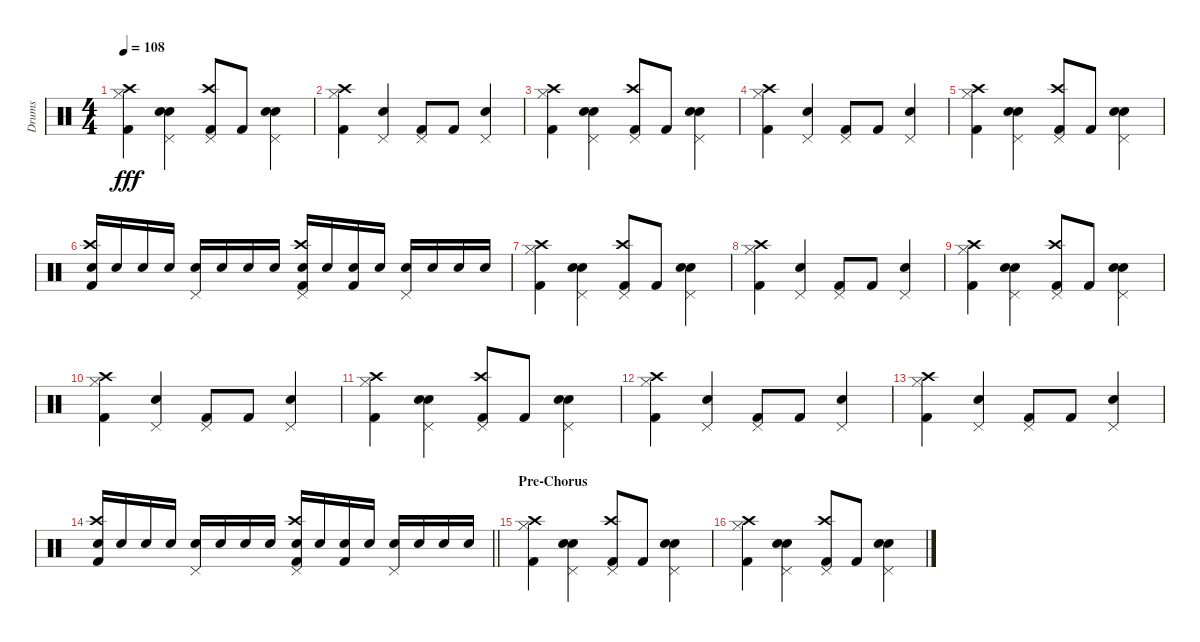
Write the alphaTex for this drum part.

\track ("Drums" "Drums") {instrument percussion}
\staff {score}
\articulation defaults
\ts (4 4)
\tempo 108
\clef neutral
\ks c
("Hi-Hat (closed)" "Kick (hit) 2" "Crash high (hit)").4{dy fff} ("Electric Snare (hit)" "Pedal Hi-Hat (hit)" "Snare (hit) 2").4 ("Pedal Hi-Hat (hit)" "Kick (hit) 2" "Crash high (hit)").8 "Kick (hit) 2".8 ("Electric Snare (hit)" "Pedal Hi-Hat (hit)" "Snare (hit) 2").4 |
("Hi-Hat (closed)" "Kick (hit) 2" "Crash high (hit)").4 ("Electric Snare (hit)" "Pedal Hi-Hat (hit)").4 ("Pedal Hi-Hat (hit)" "Kick (hit) 2").8 "Kick (hit) 2".8 ("Electric Snare (hit)" "Pedal Hi-Hat (hit)").4 |
("Hi-Hat (closed)" "Kick (hit) 2" "Crash high (hit)").4 ("Electric Snare (hit)" "Pedal Hi-Hat (hit)" "Snare (hit) 2").4 ("Pedal Hi-Hat (hit)" "Kick (hit) 2" "Crash high (hit)").8 "Kick (hit) 2".8 ("Electric Snare (hit)" "Pedal Hi-Hat (hit)" "Snare (hit) 2").4 |
("Hi-Hat (closed)" "Kick (hit) 2" "Crash high (hit)").4 ("Electric Snare (hit)" "Pedal Hi-Hat (hit)").4 ("Pedal Hi-Hat (hit)" "Kick (hit) 2").8 "Kick (hit) 2".8 ("Electric Snare (hit)" "Pedal Hi-Hat (hit)").4 |
("Hi-Hat (closed)" "Kick (hit) 2" "Crash high (hit)").4 ("Electric Snare (hit)" "Pedal Hi-Hat (hit)" "Snare (hit) 2").4 ("Pedal Hi-Hat (hit)" "Kick (hit) 2" "Crash high (hit)").8 "Kick (hit) 2".8 ("Electric Snare (hit)" "Pedal Hi-Hat (hit)" "Snare (hit) 2").4 |
("Kick (hit) 2" "Crash high (hit)" "Snare (hit) 2").16 "Snare (hit) 2".16 "Snare (hit) 2".16 "Snare (hit) 2".16 ("Pedal Hi-Hat (hit)" "Electric Snare (hit)").16 "Electric Snare (hit)".16 "Electric Snare (hit)".16 "Electric Snare (hit)".16 ("Pedal Hi-Hat (hit)" "Kick (hit) 2" "Crash high (hit)" "Electric Snare (hit)").16 "Electric Snare (hit)".16 ("Kick (hit) 2" "Electric Snare (hit)").16 "Electric Snare (hit)".16 ("Pedal Hi-Hat (hit)" "Snare (hit) 2").16 "Snare (hit) 2".16 "Snare (hit) 2".16 "Snare (hit) 2".16 |
("Hi-Hat (closed)" "Kick (hit) 2" "Crash high (hit)").4 ("Electric Snare (hit)" "Pedal Hi-Hat (hit)" "Snare (hit) 2").4 ("Pedal Hi-Hat (hit)" "Kick (hit) 2" "Crash high (hit)").8 "Kick (hit) 2".8 ("Electric Snare (hit)" "Pedal Hi-Hat (hit)" "Snare (hit) 2").4 |
("Hi-Hat (closed)" "Kick (hit) 2" "Crash high (hit)").4 ("Electric Snare (hit)" "Pedal Hi-Hat (hit)").4 ("Pedal Hi-Hat (hit)" "Kick (hit) 2").8 "Kick (hit) 2".8 ("Electric Snare (hit)" "Pedal Hi-Hat (hit)").4 |
("Hi-Hat (closed)" "Kick (hit) 2" "Crash high (hit)").4 ("Electric Snare (hit)" "Pedal Hi-Hat (hit)" "Snare (hit) 2").4 ("Pedal Hi-Hat (hit)" "Kick (hit) 2" "Crash high (hit)").8 "Kick (hit) 2".8 ("Electric Snare (hit)" "Pedal Hi-Hat (hit)" "Snare (hit) 2").4 |
("Hi-Hat (closed)" "Kick (hit) 2" "Crash high (hit)").4 ("Electric Snare (hit)" "Pedal Hi-Hat (hit)").4 ("Pedal Hi-Hat (hit)" "Kick (hit) 2").8 "Kick (hit) 2".8 ("Electric Snare (hit)" "Pedal Hi-Hat (hit)").4 |
("Hi-Hat (closed)" "Kick (hit) 2" "Crash high (hit)").4 ("Electric Snare (hit)" "Pedal Hi-Hat (hit)" "Snare (hit) 2").4 ("Pedal Hi-Hat (hit)" "Kick (hit) 2" "Crash high (hit)").8 "Kick (hit) 2".8 ("Electric Snare (hit)" "Pedal Hi-Hat (hit)" "Snare (hit) 2").4 |
("Hi-Hat (closed)" "Kick (hit) 2" "Crash high (hit)").4 ("Electric Snare (hit)" "Pedal Hi-Hat (hit)").4 ("Pedal Hi-Hat (hit)" "Kick (hit) 2").8 "Kick (hit) 2".8 ("Electric Snare (hit)" "Pedal Hi-Hat (hit)").4 |
("Hi-Hat (closed)" "Kick (hit) 2" "Crash high (hit)").4 ("Electric Snare (hit)" "Pedal Hi-Hat (hit)").4 ("Pedal Hi-Hat (hit)" "Kick (hit) 2").8 "Kick (hit) 2".8 ("Electric Snare (hit)" "Pedal Hi-Hat (hit)").4 |
\barLineRight lightlight
("Kick (hit) 2" "Crash high (hit)" "Snare (hit) 2").16 "Snare (hit) 2".16 "Snare (hit) 2".16 "Snare (hit) 2".16 ("Pedal Hi-Hat (hit)" "Electric Snare (hit)").16 "Electric Snare (hit)".16 "Electric Snare (hit)".16 "Electric Snare (hit)".16 ("Pedal Hi-Hat (hit)" "Kick (hit) 2" "Crash high (hit)" "Electric Snare (hit)").16 "Electric Snare (hit)".16 ("Kick (hit) 2" "Electric Snare (hit)").16 "Electric Snare (hit)".16 ("Pedal Hi-Hat (hit)" "Snare (hit) 2").16 "Snare (hit) 2".16 "Snare (hit) 2".16 "Snare (hit) 2".16 |
\section ("" "Pre-Chorus")
("Hi-Hat (closed)" "Kick (hit) 2" "Crash high (hit)").4 ("Electric Snare (hit)" "Pedal Hi-Hat (hit)" "Snare (hit) 2").4 ("Pedal Hi-Hat (hit)" "Kick (hit) 2" "Crash high (hit)").8 "Kick (hit) 2".8 ("Electric Snare (hit)" "Pedal Hi-Hat (hit)" "Snare (hit) 2").4 |
("Hi-Hat (closed)" "Kick (hit) 2" "Crash high (hit)").4 ("Electric Snare (hit)" "Pedal Hi-Hat (hit)" "Snare (hit) 2").4 ("Pedal Hi-Hat (hit)" "Kick (hit) 2" "Crash high (hit)").8 "Kick (hit) 2".8 ("Electric Snare (hit)" "Pedal Hi-Hat (hit)" "Snare (hit) 2").4
